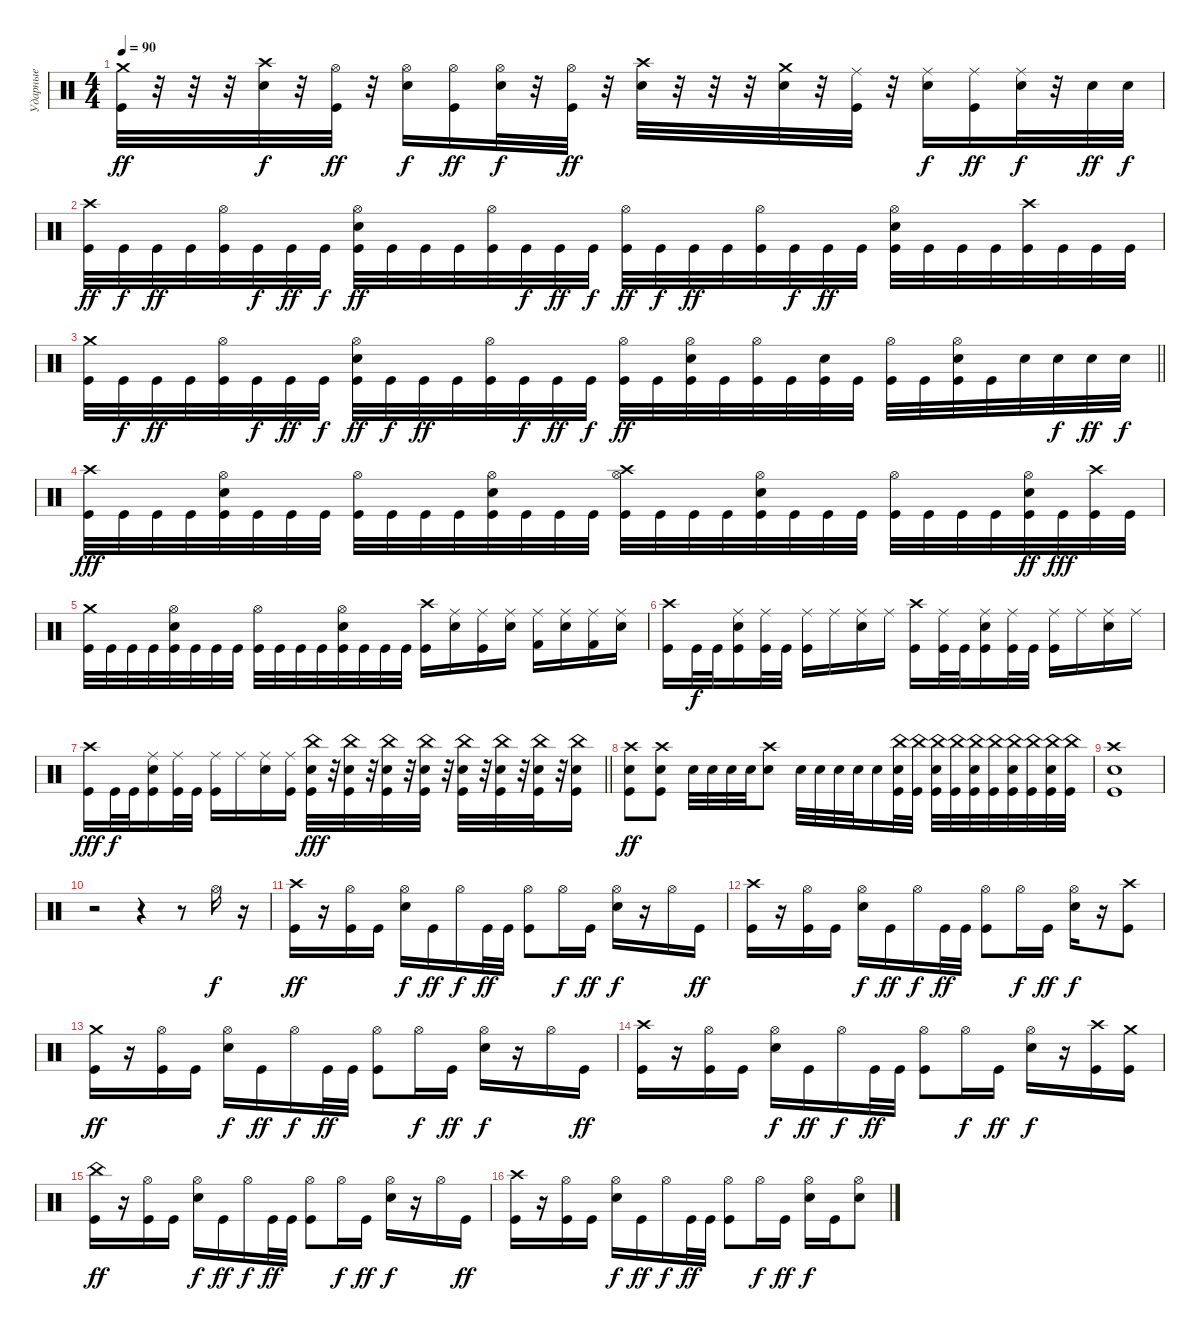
\track ("Ударные" "Ударные") {instrument percussion}
\staff {score}
\articulation defaults
\ts (4 4)
\tempo 90
\clef neutral
\ks c
("Crash medium (hit)" "Kick (hit)").32{dy ff} r.32 r.32 r.32 ("Electric Snare (hit)" "Crash high (hit)").32{dy f} r.32 ("Hi-Hat (open)" "Kick (hit)").32{dy ff} r.32 ("Electric Snare (hit)" "Hi-Hat (open)").16{dy f} ("Hi-Hat (open)" "Kick (hit)").16{dy ff} ("Electric Snare (hit)" "Hi-Hat (open)").32{dy f} r.32 ("Hi-Hat (open)" "Kick (hit)").32{dy ff} r.32 ("Electric Snare (hit)" "Crash high (hit)").32 r.32 r.32 r.32 ("Electric Snare (hit)" "Crash medium (hit)").32 r.32 ("Ride (middle)" "Kick (hit)").32 r.32 ("Electric Snare (hit)" "Ride (middle)").16{dy f} ("Ride (middle)" "Kick (hit)").16{dy ff} ("Electric Snare (hit)" "Ride (middle)").32{dy f} r.32 "Electric Snare (hit)".32{dy ff} "Electric Snare (hit)".32{dy f} |
("Crash high (hit)" "Kick (hit)").32{dy ff} "Kick (hit)".32{dy f} "Kick (hit)".32{dy ff} "Kick (hit)".32 ("Hi-Hat (open)" "Kick (hit)").32 "Kick (hit)".32{dy f} "Kick (hit)".32{dy ff} "Kick (hit)".32{dy f} ("Hi-Hat (open)" "Electric Snare (hit)" "Kick (hit)").32{dy ff} "Kick (hit)".32 "Kick (hit)".32 "Kick (hit)".32 ("Hi-Hat (open)" "Kick (hit)").32 "Kick (hit)".32{dy f} "Kick (hit)".32{dy ff} "Kick (hit)".32{dy f} ("Hi-Hat (open)" "Kick (hit)").32{dy ff} "Kick (hit)".32{dy f} "Kick (hit)".32{dy ff} "Kick (hit)".32 ("Hi-Hat (open)" "Kick (hit)").32 "Kick (hit)".32{dy f} "Kick (hit)".32{dy ff} "Kick (hit)".32 ("Hi-Hat (open)" "Electric Snare (hit)" "Kick (hit)").32 "Kick (hit)".32 "Kick (hit)".32 "Kick (hit)".32 ("Crash high (hit)" "Kick (hit)").32 "Kick (hit)".32 "Kick (hit)".32 "Kick (hit)".32 |
\barLineRight lightlight
("Crash medium (hit)" "Kick (hit)").32 "Kick (hit)".32{dy f} "Kick (hit)".32{dy ff} "Kick (hit)".32 ("Hi-Hat (open)" "Kick (hit)").32 "Kick (hit)".32{dy f} "Kick (hit)".32{dy ff} "Kick (hit)".32{dy f} ("Hi-Hat (open)" "Electric Snare (hit)" "Kick (hit)").32{dy ff} "Kick (hit)".32{dy f} "Kick (hit)".32{dy ff} "Kick (hit)".32 ("Hi-Hat (open)" "Kick (hit)").32 "Kick (hit)".32{dy f} "Kick (hit)".32{dy ff} "Kick (hit)".32{dy f} ("Hi-Hat (open)" "Kick (hit)").32{dy ff} "Kick (hit)".32 ("Hi-Hat (open)" "Electric Snare (hit)" "Kick (hit)").32 "Kick (hit)".32 ("Hi-Hat (open)" "Kick (hit)").32 "Kick (hit)".32 ("Electric Snare (hit)" "Kick (hit)").32 "Kick (hit)".32 ("Hi-Hat (open)" "Kick (hit)").32 "Kick (hit)".32 ("Hi-Hat (open)" "Electric Snare (hit)" "Kick (hit)").32 "Kick (hit)".32 "Electric Snare (hit)".32 "Electric Snare (hit)".32{dy f} "Electric Snare (hit)".32{dy ff} "Electric Snare (hit)".32{dy f} |
("Kick (hit)" "Crash high (hit)").32{dy fff} "Kick (hit)".32 "Kick (hit)".32 "Kick (hit)".32 ("Kick (hit)" "Electric Snare (hit)" "Hi-Hat (open)").32 "Kick (hit)".32 "Kick (hit)".32 "Kick (hit)".32 ("Kick (hit)" "Hi-Hat (open)").32 "Kick (hit)".32 "Kick (hit)".32 "Kick (hit)".32 ("Kick (hit)" "Electric Snare (hit)" "Hi-Hat (open)").32 "Kick (hit)".32 "Kick (hit)".32 "Kick (hit)".32 ("Kick (hit)" "Hi-Hat (open)" "Crash high (hit)").32 "Kick (hit)".32 "Kick (hit)".32 "Kick (hit)".32 ("Kick (hit)" "Electric Snare (hit)" "Hi-Hat (open)").32 "Kick (hit)".32 "Kick (hit)".32 "Kick (hit)".32 ("Kick (hit)" "Hi-Hat (open)").32 "Kick (hit)".32 "Kick (hit)".32 "Kick (hit)".32 ("Kick (hit)" "Electric Snare (hit)" "Hi-Hat (open)").32{dy ff} "Kick (hit)".32{dy fff} ("Kick (hit)" "Crash high (hit)").32 "Kick (hit)".32 |
("Kick (hit)" "Crash medium (hit)").32 "Kick (hit)".32 "Kick (hit)".32 "Kick (hit)".32 ("Kick (hit)" "Electric Snare (hit)" "Hi-Hat (open)").32 "Kick (hit)".32 "Kick (hit)".32 "Kick (hit)".32 ("Kick (hit)" "Hi-Hat (open)").32 "Kick (hit)".32 "Kick (hit)".32 "Kick (hit)".32 ("Kick (hit)" "Electric Snare (hit)" "Hi-Hat (open)").32 "Kick (hit)".32 "Kick (hit)".32 "Kick (hit)".32 ("Kick (hit)" "Crash high (hit)").16 ("Electric Snare (hit)" "Ride (middle)").16 ("Kick (hit)" "Ride (middle)").16 ("Electric Snare (hit)" "Ride (middle)").16 ("Kick (hit) 2" "Ride (middle)").16 ("Electric Snare (hit)" "Ride (middle)").16 ("Kick (hit) 2" "Ride (middle)").16 ("Electric Snare (hit)" "Ride (middle)").16 |
("Kick (hit)" "Crash high (hit)").16 "Kick (hit)".32{dy f} "Kick (hit)".32 ("Kick (hit)" "Ride (middle)" "Electric Snare (hit)").16 ("Kick (hit)" "Ride (middle)").32 "Kick (hit)".32 ("Kick (hit)" "Ride (middle)").16 "Ride (middle)".16 ("Ride (middle)" "Electric Snare (hit)").16 "Ride (middle)".16 ("Kick (hit)" "Crash high (hit)").16 ("Kick (hit)" "Ride (middle)").32 "Kick (hit)".32 ("Kick (hit)" "Ride (middle)" "Electric Snare (hit)").16 ("Kick (hit)" "Ride (middle)").32 "Kick (hit)".32 ("Kick (hit)" "Ride (middle)").16 "Ride (middle)".16 ("Ride (middle)" "Electric Snare (hit)").16 "Ride (middle)".16 |
\barLineRight lightlight
("Kick (hit)" "Crash high (hit)").16{dy fff} "Kick (hit)".32{dy f} "Kick (hit)".32 ("Kick (hit)" "Ride (middle)" "Electric Snare (hit)").16 ("Kick (hit)" "Ride (middle)").32 "Kick (hit)".32 ("Kick (hit)" "Ride (middle)").16 "Ride (middle)".16 ("Ride (middle)" "Electric Snare (hit)").16 ("Ride (middle)" "Kick (hit)").16 ("Kick (hit)" "China (hit)" "Electric Snare (hit)").32{dy fff} r.32 ("Kick (hit)" "China (hit)" "Electric Snare (hit)").32 r.32 ("Kick (hit)" "China (hit)" "Electric Snare (hit)").32 r.32 ("Kick (hit)" "China (hit)" "Electric Snare (hit)").32 r.32 ("Kick (hit)" "China (hit)" "Electric Snare (hit)").32 r.32 ("Kick (hit)" "China (hit)" "Electric Snare (hit)").32 r.32 ("Kick (hit)" "China (hit)" "Electric Snare (hit)").32 r.32 ("Kick (hit)" "China (hit)" "Electric Snare (hit)").16 |
("Crash high (hit)" "Electric Snare (hit)" "Kick (hit)").8{dy ff} ("Crash high (hit)" "Electric Snare (hit)" "Kick (hit)").8 "Electric Snare (hit)".32 "Electric Snare (hit)".32 "Electric Snare (hit)".32 "Electric Snare (hit)".32 ("Crash high (hit)" "Electric Snare (hit)").8 "Electric Snare (hit)".32 "Electric Snare (hit)".32 "Electric Snare (hit)".32 "Electric Snare (hit)".32 "Electric Snare (hit)".16 ("China (hit)" "Electric Snare (hit)" "Kick (hit)").32 ("China (hit)" "Kick (hit)").32 ("China (hit)" "Electric Snare (hit)" "Kick (hit)").32 ("China (hit)" "Kick (hit)").32 ("China (hit)" "Electric Snare (hit)" "Kick (hit)").32 ("China (hit)" "Kick (hit)").32 ("China (hit)" "Electric Snare (hit)" "Kick (hit)").32 ("China (hit)" "Kick (hit)").32 ("China (hit)" "Electric Snare (hit)" "Kick (hit)").32 ("China (hit)" "Kick (hit)").32 |
("Crash high (hit)" "Kick (hit)" "Electric Snare (hit)").1 |
r.2 r.4 r.8 "Hi-Hat (open)".16{dy f} r.16 |
("Crash high (hit)" "Kick (hit)").16{dy ff} r.16 ("Hi-Hat (open)" "Kick (hit)").16 "Kick (hit)".16 ("Hi-Hat (open)" "Electric Snare (hit)").16{dy f} "Kick (hit)".16{dy ff} "Hi-Hat (open)".16{dy f} "Kick (hit)".32{dy ff} "Kick (hit)".32 ("Hi-Hat (open)" "Kick (hit)").8 "Hi-Hat (open)".16{dy f} "Kick (hit)".16{dy ff} ("Electric Snare (hit)" "Hi-Hat (open)").16{dy f} r.16 "Hi-Hat (open)".16 "Kick (hit)".16{dy ff} |
("Crash high (hit)" "Kick (hit)").16 r.16 ("Hi-Hat (open)" "Kick (hit)").16 "Kick (hit)".16 ("Hi-Hat (open)" "Electric Snare (hit)").16{dy f} "Kick (hit)".16{dy ff} "Hi-Hat (open)".16{dy f} "Kick (hit)".32{dy ff} "Kick (hit)".32 ("Hi-Hat (open)" "Kick (hit)").8 "Hi-Hat (open)".16{dy f} "Kick (hit)".16{dy ff} ("Electric Snare (hit)" "Hi-Hat (open)").16{dy f} r.16 ("Crash high (hit)" "Kick (hit)").8 |
("Crash medium (hit)" "Kick (hit)").16{dy ff} r.16 ("Hi-Hat (open)" "Kick (hit)").16 "Kick (hit)".16 ("Hi-Hat (open)" "Electric Snare (hit)").16{dy f} "Kick (hit)".16{dy ff} "Hi-Hat (open)".16{dy f} "Kick (hit)".32{dy ff} "Kick (hit)".32 ("Hi-Hat (open)" "Kick (hit)").8 "Hi-Hat (open)".16{dy f} "Kick (hit)".16{dy ff} ("Electric Snare (hit)" "Hi-Hat (open)").16{dy f} r.16 "Hi-Hat (open)".16 "Kick (hit)".16{dy ff} |
("Crash high (hit)" "Kick (hit)").16 r.16 ("Hi-Hat (open)" "Kick (hit)").16 "Kick (hit)".16 ("Hi-Hat (open)" "Electric Snare (hit)").16{dy f} "Kick (hit)".16{dy ff} "Hi-Hat (open)".16{dy f} "Kick (hit)".32{dy ff} "Kick (hit)".32 ("Hi-Hat (open)" "Kick (hit)").8 "Hi-Hat (open)".16{dy f} "Kick (hit)".16{dy ff} ("Electric Snare (hit)" "Hi-Hat (open)").16{dy f} r.16 ("Crash high (hit)" "Kick (hit)").16 ("Crash medium (hit)" "Kick (hit)").16 |
("China (hit)" "Kick (hit)").16{dy ff} r.16 ("Hi-Hat (open)" "Kick (hit)").16 "Kick (hit)".16 ("Hi-Hat (open)" "Electric Snare (hit)").16{dy f} "Kick (hit)".16{dy ff} "Hi-Hat (open)".16{dy f} "Kick (hit)".32{dy ff} "Kick (hit)".32 ("Hi-Hat (open)" "Kick (hit)").8 "Hi-Hat (open)".16{dy f} "Kick (hit)".16{dy ff} ("Electric Snare (hit)" "Hi-Hat (open)").16{dy f} r.16 "Hi-Hat (open)".16 "Kick (hit)".16{dy ff} |
("Crash high (hit)" "Kick (hit)").16 r.16 ("Hi-Hat (open)" "Kick (hit)").16 "Kick (hit)".16 ("Hi-Hat (open)" "Electric Snare (hit)").16{dy f} "Kick (hit)".16{dy ff} "Hi-Hat (open)".16{dy f} "Kick (hit)".32{dy ff} "Kick (hit)".32 ("Hi-Hat (open)" "Kick (hit)").8 "Hi-Hat (open)".16{dy f} "Kick (hit)".16{dy ff} ("Electric Snare (hit)" "Hi-Hat (open)").16{dy f} "Kick (hit)".16 ("Hi-Hat (open)" "Electric Snare (hit)").8
